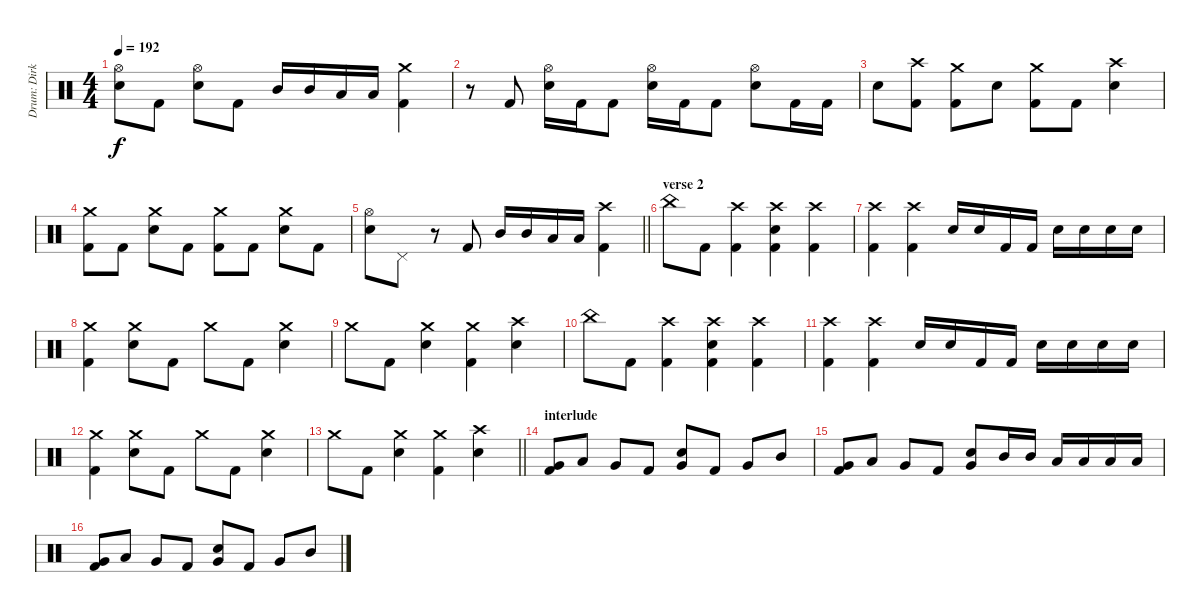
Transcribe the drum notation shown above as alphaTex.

\track ("Drum: Dirk" "Drum: Dirk") {instrument percussion}
\staff {score}
\articulation defaults
\ts (4 4)
\tempo 192
\clef neutral
\ks c
("Hi-Hat (open)" "Electric Snare (hit)").8{dy f} "Kick (hit) 2".8 ("Hi-Hat (open)" "Electric Snare (hit)").8 "Kick (hit) 2".8 "Mid Tom (hit)".16 "Mid Tom (hit)".16 "Low Tom (hit)".16 "Low Tom (hit)".16 ("Crash medium (hit)" "Kick (hit) 2").4 |
r.8 "Kick (hit) 2".8 ("Hi-Hat (open)" "Electric Snare (hit)").16 "Kick (hit) 2".16 "Kick (hit) 2".8 ("Hi-Hat (open)" "Electric Snare (hit)").16 "Kick (hit) 2".16 "Kick (hit) 2".8 ("Hi-Hat (open)" "Electric Snare (hit)").8 "Kick (hit) 2".16 "Kick (hit) 2".16 |
"Electric Snare (hit)".8 ("Crash high (hit)" "Kick (hit) 2").8 ("Crash medium (hit)" "Kick (hit) 2").8 "Electric Snare (hit)".8 ("Crash medium (hit)" "Kick (hit) 2").8 "Kick (hit) 2".8 ("Crash high (hit)" "Electric Snare (hit)").4 |
("Crash medium (hit)" "Kick (hit) 2").8 "Kick (hit) 2".8 ("Crash medium (hit)" "Electric Snare (hit)").8 "Kick (hit) 2".8 ("Crash medium (hit)" "Kick (hit) 2").8 "Kick (hit) 2".8 ("Crash medium (hit)" "Electric Snare (hit)").8 "Kick (hit) 2".8 |
\barLineRight lightlight
("Hi-Hat (open)" "Electric Snare (hit)").8 "Pedal Hi-Hat (hit)".8 r.8 "Kick (hit) 2".8 "Mid Tom (hit)".16 "Mid Tom (hit)".16 "Low Tom (hit)".16 "Low Tom (hit)".16 ("Crash high (hit)" "Kick (hit) 2").4 |
\section ("" "verse 2")
"China (hit)".8 "Kick (hit) 2".8 ("Crash high (hit)" "Kick (hit) 2").4 ("Crash high (hit)" "Electric Snare (hit)" "Kick (hit) 2").4 ("Crash high (hit)" "Kick (hit) 2").4 |
("Crash high (hit)" "Kick (hit) 2").4 ("Crash high (hit)" "Kick (hit) 2").4 "Electric Snare (hit)".16 "Electric Snare (hit)".16 "Kick (hit) 2".16 "Kick (hit) 2".16 "Electric Snare (hit)".16 "Electric Snare (hit)".16 "Electric Snare (hit)".16 "Electric Snare (hit)".16 |
("Crash medium (hit)" "Kick (hit) 2").4 ("Crash medium (hit)" "Electric Snare (hit)").8 "Kick (hit) 2".8 "Crash medium (hit)".8 "Kick (hit) 2".8 ("Crash medium (hit)" "Electric Snare (hit)").4 |
"Crash medium (hit)".8 "Kick (hit) 2".8 ("Crash medium (hit)" "Electric Snare (hit)").4 ("Crash medium (hit)" "Kick (hit) 2").4 ("Crash high (hit)" "Electric Snare (hit)").4 |
"China (hit)".8 "Kick (hit) 2".8 ("Crash high (hit)" "Kick (hit) 2").4 ("Crash high (hit)" "Electric Snare (hit)" "Kick (hit) 2").4 ("Crash high (hit)" "Kick (hit) 2").4 |
("Crash high (hit)" "Kick (hit) 2").4 ("Crash high (hit)" "Kick (hit) 2").4 "Electric Snare (hit)".16 "Electric Snare (hit)".16 "Kick (hit) 2".16 "Kick (hit) 2".16 "Electric Snare (hit)".16 "Electric Snare (hit)".16 "Electric Snare (hit)".16 "Electric Snare (hit)".16 |
("Crash medium (hit)" "Kick (hit) 2").4 ("Crash medium (hit)" "Electric Snare (hit)").8 "Kick (hit) 2".8 "Crash medium (hit)".8 "Kick (hit) 2".8 ("Crash medium (hit)" "Electric Snare (hit)").4 |
\barLineRight lightlight "Crash medium (hit)".8 "Kick (hit) 2".8
("Crash medium (hit)" "Electric Snare (hit)").4 ("Crash medium (hit)" "Kick (hit) 2").4 ("Crash high (hit)" "Electric Snare (hit)").4 |
\section ("" "interlude")
("Very Low Tom (hit)" "Kick (hit) 2").8 "Low Tom (hit)".8 "Very Low Tom (hit)".8 "Kick (hit) 2".8 ("Electric Snare (hit)" "Very Low Tom (hit)").8 "Kick (hit) 2".8 "Very Low Tom (hit)".8 "Mid Tom (hit)".8 |
("Very Low Tom (hit)" "Kick (hit) 2").8 "Low Tom (hit)".8 "Very Low Tom (hit)".8 "Kick (hit) 2".8 ("Electric Snare (hit)" "Very Low Tom (hit)").8 "Mid Tom (hit)".16 "Mid Tom (hit)".16 "Low Tom (hit)".16 "Low Tom (hit)".16 "Low Tom (hit)".16 "Low Tom (hit)".16 |
("Very Low Tom (hit)" "Kick (hit) 2").8 "Low Tom (hit)".8 "Very Low Tom (hit)".8 "Kick (hit) 2".8 ("Electric Snare (hit)" "Very Low Tom (hit)").8 "Kick (hit) 2".8 "Very Low Tom (hit)".8 "Mid Tom (hit)".8
